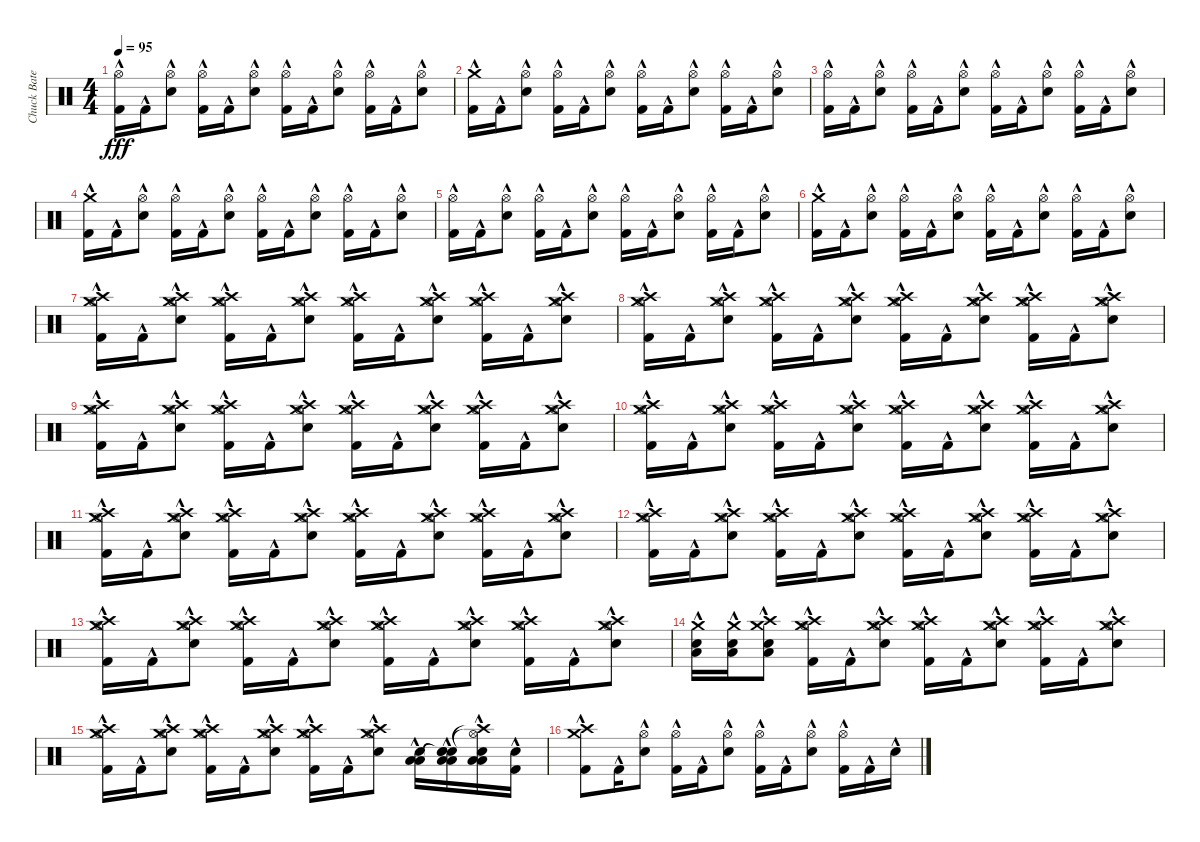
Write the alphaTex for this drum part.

\track ("Chuck Bateria" "Chuck Bate") {instrument percussion}
\staff {score}
\articulation defaults
\ts (4 4)
\tempo 95
\clef neutral
\ks c
("Hi-Hat (open)" "Kick (hit) 2"{hac}).16{dy fff} "Kick (hit) 2"{hac}.16 ("Hi-Hat (open)" "Electric Snare (hit)"{hac}).8 ("Hi-Hat (open)" "Kick (hit) 2"{hac}).16 "Kick (hit) 2"{hac}.16 ("Hi-Hat (open)" "Electric Snare (hit)"{hac}).8 ("Hi-Hat (open)" "Kick (hit) 2"{hac}).16 "Kick (hit) 2"{hac}.16 ("Hi-Hat (open)" "Electric Snare (hit)"{hac}).8 ("Hi-Hat (open)" "Kick (hit) 2"{hac}).16 "Kick (hit) 2"{hac}.16 ("Hi-Hat (open)" "Electric Snare (hit)"{hac}).8 |
("Crash medium (hit)" "Kick (hit) 2"{hac}).16 "Kick (hit) 2"{hac}.16 ("Hi-Hat (open)" "Electric Snare (hit)"{hac}).8 ("Hi-Hat (open)" "Kick (hit) 2"{hac}).16 "Kick (hit) 2"{hac}.16 ("Hi-Hat (open)" "Electric Snare (hit)"{hac}).8 ("Hi-Hat (open)" "Kick (hit) 2"{hac}).16 "Kick (hit) 2"{hac}.16 ("Hi-Hat (open)" "Electric Snare (hit)"{hac}).8 ("Hi-Hat (open)" "Kick (hit) 2"{hac}).16 "Kick (hit) 2"{hac}.16 ("Hi-Hat (open)" "Electric Snare (hit)"{hac}).8 |
("Hi-Hat (open)" "Kick (hit) 2"{hac}).16 "Kick (hit) 2"{hac}.16 ("Hi-Hat (open)" "Electric Snare (hit)"{hac}).8 ("Hi-Hat (open)" "Kick (hit) 2"{hac}).16 "Kick (hit) 2"{hac}.16 ("Hi-Hat (open)" "Electric Snare (hit)"{hac}).8 ("Hi-Hat (open)" "Kick (hit) 2"{hac}).16 "Kick (hit) 2"{hac}.16 ("Hi-Hat (open)" "Electric Snare (hit)"{hac}).8 ("Hi-Hat (open)" "Kick (hit) 2"{hac}).16 "Kick (hit) 2"{hac}.16 ("Hi-Hat (open)" "Electric Snare (hit)"{hac}).8 |
("Crash medium (hit)" "Kick (hit) 2"{hac}).16 "Kick (hit) 2"{hac}.16 ("Hi-Hat (open)" "Electric Snare (hit)"{hac}).8 ("Hi-Hat (open)" "Kick (hit) 2"{hac}).16 "Kick (hit) 2"{hac}.16 ("Hi-Hat (open)" "Electric Snare (hit)"{hac}).8 ("Hi-Hat (open)" "Kick (hit) 2"{hac}).16 "Kick (hit) 2"{hac}.16 ("Hi-Hat (open)" "Electric Snare (hit)"{hac}).8 ("Hi-Hat (open)" "Kick (hit) 2"{hac}).16 "Kick (hit) 2"{hac}.16 ("Hi-Hat (open)" "Electric Snare (hit)"{hac}).8 |
("Hi-Hat (open)" "Kick (hit) 2"{hac}).16 "Kick (hit) 2"{hac}.16 ("Hi-Hat (open)" "Electric Snare (hit)"{hac}).8 ("Hi-Hat (open)" "Kick (hit) 2"{hac}).16 "Kick (hit) 2"{hac}.16 ("Hi-Hat (open)" "Electric Snare (hit)"{hac}).8 ("Hi-Hat (open)" "Kick (hit) 2"{hac}).16 "Kick (hit) 2"{hac}.16 ("Hi-Hat (open)" "Electric Snare (hit)"{hac}).8 ("Hi-Hat (open)" "Kick (hit) 2"{hac}).16 "Kick (hit) 2"{hac}.16 ("Hi-Hat (open)" "Electric Snare (hit)"{hac}).8 |
("Crash medium (hit)" "Kick (hit) 2"{hac}).16 "Kick (hit) 2"{hac}.16 ("Hi-Hat (open)" "Electric Snare (hit)"{hac}).8 ("Hi-Hat (open)" "Kick (hit) 2"{hac}).16 "Kick (hit) 2"{hac}.16 ("Hi-Hat (open)" "Electric Snare (hit)"{hac}).8 ("Hi-Hat (open)" "Kick (hit) 2"{hac}).16 "Kick (hit) 2"{hac}.16 ("Hi-Hat (open)" "Electric Snare (hit)"{hac}).8 ("Hi-Hat (open)" "Kick (hit) 2"{hac}).16 "Kick (hit) 2"{hac}.16 ("Hi-Hat (open)" "Electric Snare (hit)"{hac}).8 |
("Crash high (hit)" "Hi-Hat (open)" "Crash medium (hit)" "Kick (hit) 2"{hac}).16 "Kick (hit) 2"{hac}.16 ("Crash high (hit)" "Hi-Hat (open)" "Crash medium (hit)" "Electric Snare (hit)"{hac}).8 ("Crash high (hit)" "Hi-Hat (open)" "Crash medium (hit)" "Kick (hit) 2"{hac}).16 "Kick (hit) 2"{hac}.16 ("Crash high (hit)" "Hi-Hat (open)" "Crash medium (hit)" "Electric Snare (hit)"{hac}).8 ("Crash high (hit)" "Hi-Hat (open)" "Crash medium (hit)" "Kick (hit) 2"{hac}).16 "Kick (hit) 2"{hac}.16 ("Crash high (hit)" "Hi-Hat (open)" "Crash medium (hit)" "Electric Snare (hit)"{hac}).8 ("Crash high (hit)" "Hi-Hat (open)" "Crash medium (hit)" "Kick (hit) 2"{hac}).16 "Kick (hit) 2"{hac}.16 ("Crash high (hit)" "Hi-Hat (open)" "Crash medium (hit)" "Electric Snare (hit)"{hac}).8 |
("Crash high (hit)" "Hi-Hat (open)" "Crash medium (hit)" "Kick (hit) 2"{hac}).16 "Kick (hit) 2"{hac}.16 ("Crash high (hit)" "Hi-Hat (open)" "Crash medium (hit)" "Electric Snare (hit)"{hac}).8 ("Crash high (hit)" "Hi-Hat (open)" "Crash medium (hit)" "Kick (hit) 2"{hac}).16 "Kick (hit) 2"{hac}.16 ("Crash high (hit)" "Hi-Hat (open)" "Crash medium (hit)" "Electric Snare (hit)"{hac}).8 ("Crash high (hit)" "Hi-Hat (open)" "Crash medium (hit)" "Kick (hit) 2"{hac}).16 "Kick (hit) 2"{hac}.16 ("Crash high (hit)" "Hi-Hat (open)" "Crash medium (hit)" "Electric Snare (hit)"{hac}).8 ("Crash high (hit)" "Hi-Hat (open)" "Crash medium (hit)" "Kick (hit) 2"{hac}).16 "Kick (hit) 2"{hac}.16 ("Crash high (hit)" "Hi-Hat (open)" "Crash medium (hit)" "Electric Snare (hit)"{hac}).8 |
("Crash high (hit)" "Hi-Hat (open)" "Crash medium (hit)" "Kick (hit) 2"{hac}).16 "Kick (hit) 2"{hac}.16 ("Crash high (hit)" "Hi-Hat (open)" "Crash medium (hit)" "Electric Snare (hit)"{hac}).8 ("Crash high (hit)" "Hi-Hat (open)" "Crash medium (hit)" "Kick (hit) 2"{hac}).16 "Kick (hit) 2"{hac}.16 ("Crash high (hit)" "Hi-Hat (open)" "Crash medium (hit)" "Electric Snare (hit)"{hac}).8 ("Crash high (hit)" "Hi-Hat (open)" "Crash medium (hit)" "Kick (hit) 2"{hac}).16 "Kick (hit) 2"{hac}.16 ("Crash high (hit)" "Hi-Hat (open)" "Crash medium (hit)" "Electric Snare (hit)"{hac}).8 ("Crash high (hit)" "Hi-Hat (open)" "Crash medium (hit)" "Kick (hit) 2"{hac}).16 "Kick (hit) 2"{hac}.16 ("Crash high (hit)" "Hi-Hat (open)" "Crash medium (hit)" "Electric Snare (hit)"{hac}).8 |
("Crash high (hit)" "Hi-Hat (open)" "Crash medium (hit)" "Kick (hit) 2"{hac}).16 "Kick (hit) 2"{hac}.16 ("Crash high (hit)" "Hi-Hat (open)" "Crash medium (hit)" "Electric Snare (hit)"{hac}).8 ("Crash high (hit)" "Hi-Hat (open)" "Crash medium (hit)" "Kick (hit) 2"{hac}).16 "Kick (hit) 2"{hac}.16 ("Crash high (hit)" "Hi-Hat (open)" "Crash medium (hit)" "Electric Snare (hit)"{hac}).8 ("Crash high (hit)" "Hi-Hat (open)" "Crash medium (hit)" "Kick (hit) 2"{hac}).16 "Kick (hit) 2"{hac}.16 ("Crash high (hit)" "Hi-Hat (open)" "Crash medium (hit)" "Electric Snare (hit)"{hac}).8 ("Crash high (hit)" "Hi-Hat (open)" "Crash medium (hit)" "Kick (hit) 2"{hac}).16 "Kick (hit) 2"{hac}.16 ("Crash high (hit)" "Hi-Hat (open)" "Crash medium (hit)" "Electric Snare (hit)"{hac}).8 |
("Crash high (hit)" "Hi-Hat (open)" "Crash medium (hit)" "Kick (hit) 2"{hac}).16 "Kick (hit) 2"{hac}.16 ("Crash high (hit)" "Hi-Hat (open)" "Crash medium (hit)" "Electric Snare (hit)"{hac}).8 ("Crash high (hit)" "Hi-Hat (open)" "Crash medium (hit)" "Kick (hit) 2"{hac}).16 "Kick (hit) 2"{hac}.16 ("Crash high (hit)" "Hi-Hat (open)" "Crash medium (hit)" "Electric Snare (hit)"{hac}).8 ("Crash high (hit)" "Hi-Hat (open)" "Crash medium (hit)" "Kick (hit) 2"{hac}).16 "Kick (hit) 2"{hac}.16 ("Crash high (hit)" "Hi-Hat (open)" "Crash medium (hit)" "Electric Snare (hit)"{hac}).8 ("Crash high (hit)" "Hi-Hat (open)" "Crash medium (hit)" "Kick (hit) 2"{hac}).16 "Kick (hit) 2"{hac}.16 ("Crash high (hit)" "Hi-Hat (open)" "Crash medium (hit)" "Electric Snare (hit)"{hac}).8 |
("Crash high (hit)" "Hi-Hat (open)" "Crash medium (hit)" "Kick (hit) 2"{hac}).16 "Kick (hit) 2"{hac}.16 ("Crash high (hit)" "Hi-Hat (open)" "Crash medium (hit)" "Electric Snare (hit)"{hac}).8 ("Crash high (hit)" "Hi-Hat (open)" "Crash medium (hit)" "Kick (hit) 2"{hac}).16 "Kick (hit) 2"{hac}.16 ("Crash high (hit)" "Hi-Hat (open)" "Crash medium (hit)" "Electric Snare (hit)"{hac}).8 ("Crash high (hit)" "Hi-Hat (open)" "Crash medium (hit)" "Kick (hit) 2"{hac}).16 "Kick (hit) 2"{hac}.16 ("Crash high (hit)" "Hi-Hat (open)" "Crash medium (hit)" "Electric Snare (hit)"{hac}).8 ("Crash high (hit)" "Hi-Hat (open)" "Crash medium (hit)" "Kick (hit) 2"{hac}).16 "Kick (hit) 2"{hac}.16 ("Crash high (hit)" "Hi-Hat (open)" "Crash medium (hit)" "Electric Snare (hit)"{hac}).8 |
("Crash high (hit)" "Hi-Hat (open)" "Crash medium (hit)" "Kick (hit) 2"{hac}).16 "Kick (hit) 2"{hac}.16 ("Crash high (hit)" "Hi-Hat (open)" "Crash medium (hit)" "Electric Snare (hit)"{hac}).8 ("Crash high (hit)" "Hi-Hat (open)" "Crash medium (hit)" "Kick (hit) 2"{hac}).16 "Kick (hit) 2"{hac}.16 ("Crash high (hit)" "Hi-Hat (open)" "Crash medium (hit)" "Electric Snare (hit)"{hac}).8 ("Crash high (hit)" "Hi-Hat (open)" "Crash medium (hit)" "Kick (hit) 2"{hac}).16 "Kick (hit) 2"{hac}.16 ("Crash high (hit)" "Hi-Hat (open)" "Crash medium (hit)" "Electric Snare (hit)"{hac}).8 ("Crash high (hit)" "Hi-Hat (open)" "Crash medium (hit)" "Kick (hit) 2"{hac}).16 "Kick (hit) 2"{hac}.16 ("Crash high (hit)"{hac} "Hi-Hat (open)"{hac} "Crash medium (hit)"{hac} "Electric Snare (hit)"{hac}).8 |
("Crash medium (hit)" "Electric Snare (hit)"{hac} "Low Floor Tom (hit)"{hac}).16 ("Crash medium (hit)" "Electric Snare (hit)"{hac} "Low Floor Tom (hit)"{hac}).16 ("Crash high (hit)" "Crash medium (hit)" "Electric Snare (hit)"{hac} "Low Floor Tom (hit)"{hac}).8 ("Crash high (hit)" "Hi-Hat (open)" "Crash medium (hit)" "Kick (hit) 2"{hac}).16 "Kick (hit) 2"{hac}.16 ("Crash high (hit)" "Hi-Hat (open)" "Crash medium (hit)" "Electric Snare (hit)"{hac}).8 ("Crash high (hit)" "Hi-Hat (open)" "Crash medium (hit)" "Kick (hit) 2"{hac}).16 "Kick (hit) 2"{hac}.16 ("Crash high (hit)" "Hi-Hat (open)" "Crash medium (hit)" "Electric Snare (hit)"{hac}).8 ("Crash high (hit)" "Hi-Hat (open)" "Crash medium (hit)" "Kick (hit) 2"{hac}).16 "Kick (hit) 2"{hac}.16 ("Crash high (hit)" "Hi-Hat (open)" "Crash medium (hit)" "Electric Snare (hit)"{hac}).8 |
("Crash high (hit)" "Hi-Hat (open)" "Crash medium (hit)" "Kick (hit) 2"{hac}).16 "Kick (hit) 2"{hac}.16 ("Crash high (hit)" "Hi-Hat (open)" "Crash medium (hit)" "Electric Snare (hit)"{hac}).8 ("Crash high (hit)" "Hi-Hat (open)" "Crash medium (hit)" "Kick (hit) 2"{hac}).16 "Kick (hit) 2"{hac}.16 ("Crash high (hit)" "Hi-Hat (open)" "Crash medium (hit)" "Electric Snare (hit)"{hac}).8 ("Crash high (hit)" "Hi-Hat (open)" "Crash medium (hit)" "Kick (hit) 2"{hac}).16 "Kick (hit) 2"{hac}.16 ("Crash high (hit)" "Hi-Hat (open)" "Crash medium (hit)" "Electric Snare (hit)"{hac}).8 ("Low Floor Tom (hit)"{hac} "Low Floor Tom (hit)"{hac} "Electric Snare (hit)").16 ("Snare (hit)"{t} "Snare (hit)"{t} "Low Floor Tom (hit)"{hac} "Low Floor Tom (hit)"{hac} "Electric Snare (hit)"{hac}).16 ("Crash high (hit)"{t} "Hi-Hat (open)"{t} "Low Floor Tom (hit)"{hac} "Low Floor Tom (hit)"{hac} "Electric Snare (hit)"{hac}).16 ("Electric Snare (hit)"{hac} "Kick (hit) 2"{hac}).16 |
("Crash medium (hit)" "Crash high (hit)" "Kick (hit) 2"{hac}).8 "Kick (hit) 2"{hac}.16 ("Hi-Hat (open)" "Electric Snare (hit)"{hac}).8 ("Hi-Hat (open)" "Kick (hit) 2"{hac}).16 "Kick (hit) 2"{hac}.16 ("Hi-Hat (open)" "Electric Snare (hit)"{hac}).8 ("Hi-Hat (open)" "Kick (hit) 2"{hac}).16 "Kick (hit) 2"{hac}.16 ("Hi-Hat (open)" "Electric Snare (hit)"{hac}).8 ("Hi-Hat (open)" "Kick (hit) 2"{hac}).16 "Kick (hit) 2"{hac}.16 "Electric Snare (hit)"{hac}.16
